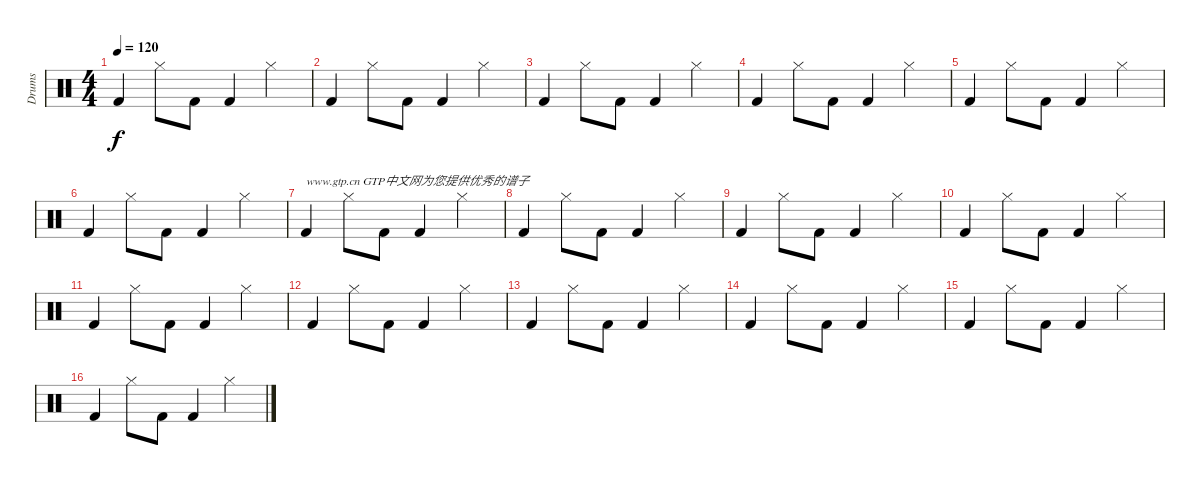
\track ("Drums" "Drums") {instrument percussion}
\staff {score}
\articulation defaults
\ts (4 4)
\tempo 120
\clef neutral
\ks c "Kick (hit) 2".4{dy f} "Hi-Hat (closed)".8 "Kick (hit) 2".8 "Kick (hit) 2".4 "Hi-Hat (closed)".4
|
"Kick (hit) 2".4 "Hi-Hat (closed)".8 "Kick (hit) 2".8 "Kick (hit) 2".4 "Hi-Hat (closed)".4 |
"Kick (hit) 2".4 "Hi-Hat (closed)".8 "Kick (hit) 2".8 "Kick (hit) 2".4 "Hi-Hat (closed)".4 |
"Kick (hit) 2".4 "Hi-Hat (closed)".8 "Kick (hit) 2".8 "Kick (hit) 2".4 "Hi-Hat (closed)".4 |
"Kick (hit) 2".4 "Hi-Hat (closed)".8 "Kick (hit) 2".8 "Kick (hit) 2".4 "Hi-Hat (closed)".4 |
"Kick (hit) 2".4 "Hi-Hat (closed)".8 "Kick (hit) 2".8 "Kick (hit) 2".4 "Hi-Hat (closed)".4 |
"Kick (hit) 2".4{txt "www.gtp.cn GTP中文网为您提供优秀的谱子"} "Hi-Hat (closed)".8 "Kick (hit) 2".8 "Kick (hit) 2".4 "Hi-Hat (closed)".4 |
"Kick (hit) 2".4 "Hi-Hat (closed)".8 "Kick (hit) 2".8 "Kick (hit) 2".4 "Hi-Hat (closed)".4 |
"Kick (hit) 2".4 "Hi-Hat (closed)".8 "Kick (hit) 2".8 "Kick (hit) 2".4 "Hi-Hat (closed)".4 |
"Kick (hit) 2".4 "Hi-Hat (closed)".8 "Kick (hit) 2".8 "Kick (hit) 2".4 "Hi-Hat (closed)".4 |
"Kick (hit) 2".4 "Hi-Hat (closed)".8 "Kick (hit) 2".8 "Kick (hit) 2".4 "Hi-Hat (closed)".4 |
"Kick (hit) 2".4 "Hi-Hat (closed)".8 "Kick (hit) 2".8 "Kick (hit) 2".4 "Hi-Hat (closed)".4 |
"Kick (hit) 2".4 "Hi-Hat (closed)".8 "Kick (hit) 2".8 "Kick (hit) 2".4 "Hi-Hat (closed)".4 |
"Kick (hit) 2".4 "Hi-Hat (closed)".8 "Kick (hit) 2".8 "Kick (hit) 2".4 "Hi-Hat (closed)".4 |
"Kick (hit) 2".4 "Hi-Hat (closed)".8 "Kick (hit) 2".8 "Kick (hit) 2".4 "Hi-Hat (closed)".4 |
"Kick (hit) 2".4 "Hi-Hat (closed)".8 "Kick (hit) 2".8 "Kick (hit) 2".4 "Hi-Hat (closed)".4
